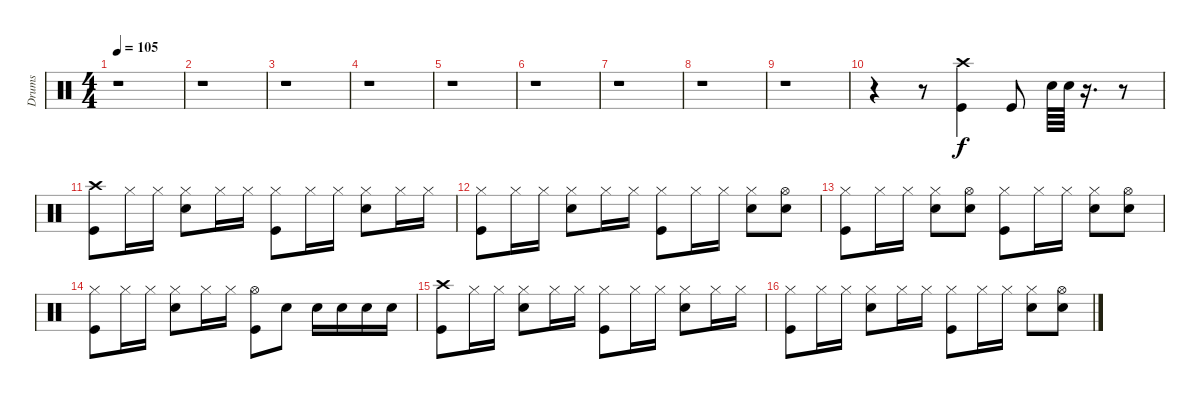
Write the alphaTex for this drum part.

\track ("Drums" "Drums") {instrument percussion}
\staff {score}
\articulation defaults
\ts (4 4)
\tempo 105
\clef neutral
\ks c
r.1{dy f} |
r.1 |
r.1 |
r.1 |
r.1 |
r.1 |
r.1 |
r.1 |
r.1 |
r.4 r.8 ("Kick (hit)" "Crash high (hit)").4 "Kick (hit)".8 "Snare (hit) 2".64 "Snare (hit) 2".64 r.16{d} r.8 |
("Crash high (hit)" "Kick (hit)").8 "Hi-Hat (closed)".16 "Hi-Hat (closed)".16 ("Hi-Hat (closed)" "Snare (hit) 2").8 "Hi-Hat (closed)".16 "Hi-Hat (closed)".16 ("Hi-Hat (closed)" "Kick (hit)").8 "Hi-Hat (closed)".16 "Hi-Hat (closed)".16 ("Hi-Hat (closed)" "Snare (hit) 2").8 "Hi-Hat (closed)".16 "Hi-Hat (closed)".16 |
("Hi-Hat (closed)" "Kick (hit)").8 "Hi-Hat (closed)".16 "Hi-Hat (closed)".16 ("Hi-Hat (closed)" "Snare (hit) 2").8 "Hi-Hat (closed)".16 "Hi-Hat (closed)".16 ("Hi-Hat (closed)" "Kick (hit)").8 "Hi-Hat (closed)".16 "Hi-Hat (closed)".16 ("Hi-Hat (closed)" "Snare (hit) 2").8 ("Hi-Hat (open)" "Snare (hit) 2").8 |
("Hi-Hat (closed)" "Kick (hit)").8 "Hi-Hat (closed)".16 "Hi-Hat (closed)".16 ("Hi-Hat (closed)" "Snare (hit) 2").8 ("Hi-Hat (open)" "Snare (hit) 2").8 ("Hi-Hat (closed)" "Kick (hit)").8 "Hi-Hat (closed)".16 "Hi-Hat (closed)".16 ("Hi-Hat (closed)" "Snare (hit) 2").8 ("Hi-Hat (open)" "Snare (hit) 2").8 |
("Hi-Hat (closed)" "Kick (hit)").8 "Hi-Hat (closed)".16 "Hi-Hat (closed)".16 ("Hi-Hat (closed)" "Snare (hit) 2").8 "Hi-Hat (closed)".16 "Hi-Hat (closed)".16 ("Hi-Hat (open)" "Kick (hit)").8 "Snare (hit) 2".8 "Snare (hit) 2".16 "Snare (hit) 2".16 "Snare (hit) 2".16 "Snare (hit) 2".16 |
("Crash high (hit)" "Kick (hit)").8 "Hi-Hat (closed)".16 "Hi-Hat (closed)".16 ("Hi-Hat (closed)" "Snare (hit) 2").8 "Hi-Hat (closed)".16 "Hi-Hat (closed)".16 ("Hi-Hat (closed)" "Kick (hit)").8 "Hi-Hat (closed)".16 "Hi-Hat (closed)".16 ("Hi-Hat (closed)" "Snare (hit) 2").8 "Hi-Hat (closed)".16 "Hi-Hat (closed)".16 |
("Hi-Hat (closed)" "Kick (hit)").8 "Hi-Hat (closed)".16 "Hi-Hat (closed)".16 ("Hi-Hat (closed)" "Snare (hit) 2").8 "Hi-Hat (closed)".16 "Hi-Hat (closed)".16 ("Hi-Hat (closed)" "Kick (hit)").8 "Hi-Hat (closed)".16 "Hi-Hat (closed)".16 ("Hi-Hat (closed)" "Snare (hit) 2").8 ("Hi-Hat (open)" "Snare (hit) 2").8
